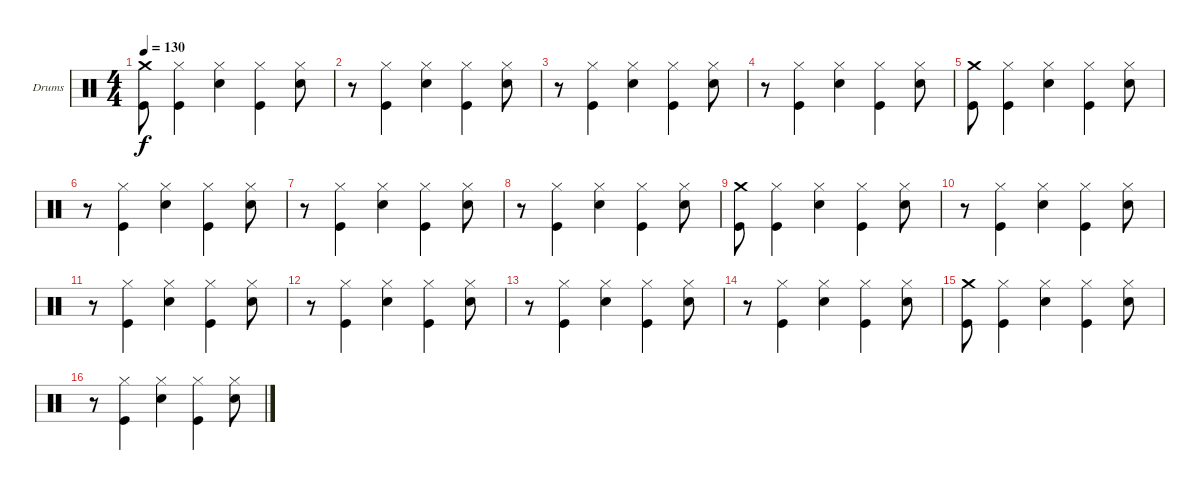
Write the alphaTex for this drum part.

\bracketExtendMode groupsimilarinstruments
\firstSystemTrackNameOrientation horizontal
\otherSystemsTrackNameOrientation horizontal
\track ("Drumkit" "Drums") {instrument percussion}
\staff {score}
\articulation defaults
\ts (4 4)
\tempo 130
\clef neutral
\ks c
("Crash medium (hit)" "Kick (hit)").8{dy f} ("Hi-Hat (closed)" "Kick (hit)").4 ("Hi-Hat (closed)" "Snare (hit) 2").4 ("Hi-Hat (closed)" "Kick (hit)").4 ("Hi-Hat (closed)" "Snare (hit) 2").8 |
r.8 ("Hi-Hat (closed)" "Kick (hit)").4 ("Hi-Hat (closed)" "Snare (hit) 2").4 ("Hi-Hat (closed)" "Kick (hit)").4 ("Hi-Hat (closed)" "Snare (hit) 2").8 |
r.8 ("Hi-Hat (closed)" "Kick (hit)").4 ("Hi-Hat (closed)" "Snare (hit) 2").4 ("Hi-Hat (closed)" "Kick (hit)").4 ("Hi-Hat (closed)" "Snare (hit) 2").8 |
r.8 ("Hi-Hat (closed)" "Kick (hit)").4 ("Hi-Hat (closed)" "Snare (hit) 2").4 ("Hi-Hat (closed)" "Kick (hit)").4 ("Hi-Hat (closed)" "Snare (hit) 2").8 |
("Crash medium (hit)" "Kick (hit)").8 ("Hi-Hat (closed)" "Kick (hit)").4 ("Hi-Hat (closed)" "Snare (hit) 2").4 ("Hi-Hat (closed)" "Kick (hit)").4 ("Hi-Hat (closed)" "Snare (hit) 2").8 |
r.8 ("Hi-Hat (closed)" "Kick (hit)").4 ("Hi-Hat (closed)" "Snare (hit) 2").4 ("Hi-Hat (closed)" "Kick (hit)").4 ("Hi-Hat (closed)" "Snare (hit) 2").8 |
r.8 ("Hi-Hat (closed)" "Kick (hit)").4 ("Hi-Hat (closed)" "Snare (hit) 2").4 ("Hi-Hat (closed)" "Kick (hit)").4 ("Hi-Hat (closed)" "Snare (hit) 2").8 |
r.8 ("Hi-Hat (closed)" "Kick (hit)").4 ("Hi-Hat (closed)" "Snare (hit) 2").4 ("Hi-Hat (closed)" "Kick (hit)").4 ("Hi-Hat (closed)" "Snare (hit) 2").8 |
("Crash medium (hit)" "Kick (hit)").8 ("Hi-Hat (closed)" "Kick (hit)").4 ("Hi-Hat (closed)" "Snare (hit) 2").4 ("Hi-Hat (closed)" "Kick (hit)").4 ("Hi-Hat (closed)" "Snare (hit) 2").8 |
r.8 ("Hi-Hat (closed)" "Kick (hit)").4 ("Hi-Hat (closed)" "Snare (hit) 2").4 ("Hi-Hat (closed)" "Kick (hit)").4 ("Hi-Hat (closed)" "Snare (hit) 2").8 |
r.8 ("Hi-Hat (closed)" "Kick (hit)").4 ("Hi-Hat (closed)" "Snare (hit) 2").4 ("Hi-Hat (closed)" "Kick (hit)").4 ("Hi-Hat (closed)" "Snare (hit) 2").8 |
r.8 ("Hi-Hat (closed)" "Kick (hit)").4 ("Hi-Hat (closed)" "Snare (hit) 2").4 ("Hi-Hat (closed)" "Kick (hit)").4 ("Hi-Hat (closed)" "Snare (hit) 2").8 |
r.8 ("Hi-Hat (closed)" "Kick (hit)").4 ("Hi-Hat (closed)" "Snare (hit) 2").4 ("Hi-Hat (closed)" "Kick (hit)").4 ("Hi-Hat (closed)" "Snare (hit) 2").8 |
r.8 ("Hi-Hat (closed)" "Kick (hit)").4 ("Hi-Hat (closed)" "Snare (hit) 2").4 ("Hi-Hat (closed)" "Kick (hit)").4 ("Hi-Hat (closed)" "Snare (hit) 2").8 |
("Crash medium (hit)" "Kick (hit)").8 ("Hi-Hat (closed)" "Kick (hit)").4 ("Hi-Hat (closed)" "Snare (hit) 2").4 ("Hi-Hat (closed)" "Kick (hit)").4 ("Hi-Hat (closed)" "Snare (hit) 2").8 |
r.8 ("Hi-Hat (closed)" "Kick (hit)").4 ("Hi-Hat (closed)" "Snare (hit) 2").4 ("Hi-Hat (closed)" "Kick (hit)").4 ("Hi-Hat (closed)" "Snare (hit) 2").8
